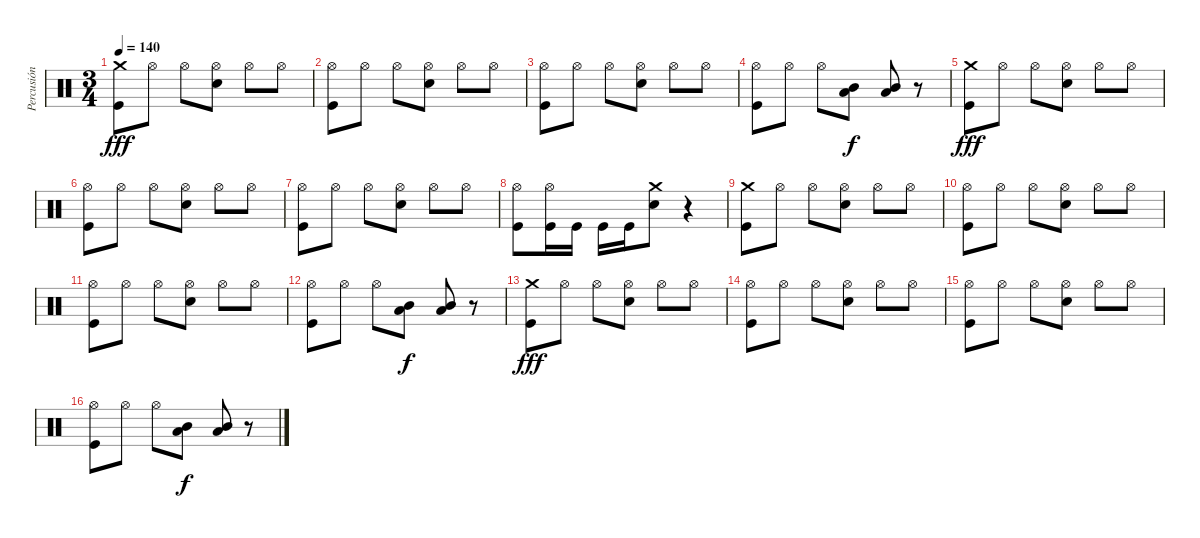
\track ("Percusión" "Percusión") {instrument percussion}
\staff {score}
\articulation defaults
\ts (3 4)
\tempo 140
\clef neutral
\ks c
("Crash medium (hit)" "Kick (hit)").8{dy fff} "Hi-Hat (open)".8 "Hi-Hat (open)".8 ("Hi-Hat (open)" "Snare (hit) 2").8 "Hi-Hat (open)".8 "Hi-Hat (open)".8 |
("Hi-Hat (open)" "Kick (hit)").8 "Hi-Hat (open)".8 "Hi-Hat (open)".8 ("Hi-Hat (open)" "Snare (hit) 2").8 "Hi-Hat (open)".8 "Hi-Hat (open)".8 |
("Hi-Hat (open)" "Kick (hit)").8 "Hi-Hat (open)".8 "Hi-Hat (open)".8 ("Hi-Hat (open)" "Snare (hit) 2").8 "Hi-Hat (open)".8 "Hi-Hat (open)".8 |
("Hi-Hat (open)" "Kick (hit)").8 "Hi-Hat (open)".8 "Hi-Hat (open)".8 ("Low Tom (hit)" "Mid Tom (hit)").8{dy f} ("Low Tom (hit)" "Mid Tom (hit)").8 r.8 |
("Crash medium (hit)" "Kick (hit)").8{dy fff} "Hi-Hat (open)".8 "Hi-Hat (open)".8 ("Hi-Hat (open)" "Snare (hit) 2").8 "Hi-Hat (open)".8 "Hi-Hat (open)".8 |
("Hi-Hat (open)" "Kick (hit)").8 "Hi-Hat (open)".8 "Hi-Hat (open)".8 ("Hi-Hat (open)" "Snare (hit) 2").8 "Hi-Hat (open)".8 "Hi-Hat (open)".8 |
("Hi-Hat (open)" "Kick (hit)").8 "Hi-Hat (open)".8 "Hi-Hat (open)".8 ("Hi-Hat (open)" "Snare (hit) 2").8 "Hi-Hat (open)".8 "Hi-Hat (open)".8 |
("Hi-Hat (open)" "Kick (hit)").8 ("Hi-Hat (open)" "Kick (hit)").16 "Kick (hit)".16 "Kick (hit)".16 "Kick (hit)".16 ("Crash medium (hit)" "Snare (hit) 2").8 r.4 |
("Crash medium (hit)" "Kick (hit)").8 "Hi-Hat (open)".8 "Hi-Hat (open)".8 ("Hi-Hat (open)" "Snare (hit) 2").8 "Hi-Hat (open)".8 "Hi-Hat (open)".8 |
("Hi-Hat (open)" "Kick (hit)").8 "Hi-Hat (open)".8 "Hi-Hat (open)".8 ("Hi-Hat (open)" "Snare (hit) 2").8 "Hi-Hat (open)".8 "Hi-Hat (open)".8 |
("Hi-Hat (open)" "Kick (hit)").8 "Hi-Hat (open)".8 "Hi-Hat (open)".8 ("Hi-Hat (open)" "Snare (hit) 2").8 "Hi-Hat (open)".8 "Hi-Hat (open)".8 |
("Hi-Hat (open)" "Kick (hit)").8 "Hi-Hat (open)".8 "Hi-Hat (open)".8 ("Low Tom (hit)" "Mid Tom (hit)").8{dy f} ("Low Tom (hit)" "Mid Tom (hit)").8 r.8 |
("Crash medium (hit)" "Kick (hit)").8{dy fff} "Hi-Hat (open)".8 "Hi-Hat (open)".8 ("Hi-Hat (open)" "Snare (hit) 2").8 "Hi-Hat (open)".8 "Hi-Hat (open)".8 |
("Hi-Hat (open)" "Kick (hit)").8 "Hi-Hat (open)".8 "Hi-Hat (open)".8 ("Hi-Hat (open)" "Snare (hit) 2").8 "Hi-Hat (open)".8 "Hi-Hat (open)".8 |
("Hi-Hat (open)" "Kick (hit)").8 "Hi-Hat (open)".8 "Hi-Hat (open)".8 ("Hi-Hat (open)" "Snare (hit) 2").8 "Hi-Hat (open)".8 "Hi-Hat (open)".8 |
("Hi-Hat (open)" "Kick (hit)").8 "Hi-Hat (open)".8 "Hi-Hat (open)".8 ("Low Tom (hit)" "Mid Tom (hit)").8{dy f} ("Low Tom (hit)" "Mid Tom (hit)").8 r.8
